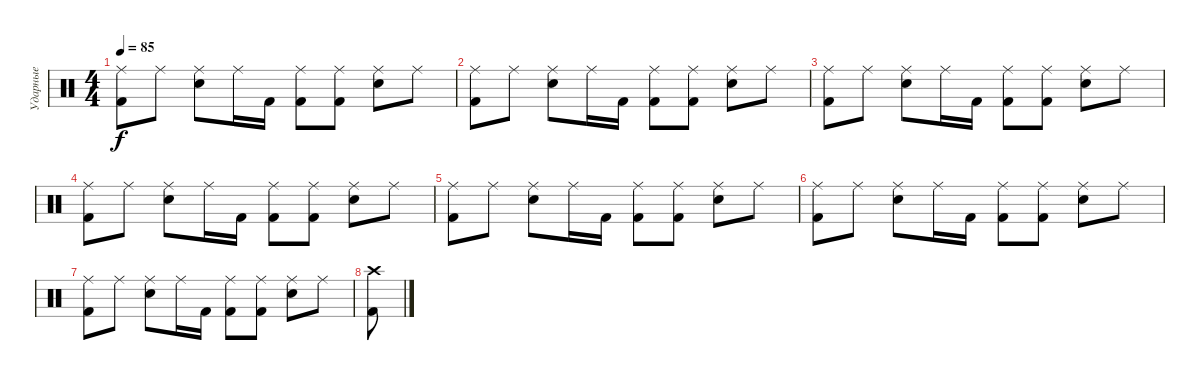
\track ("Ударные" "Ударные") {instrument percussion}
\staff {score}
\articulation defaults
\ts (4 4)
\tempo 85
\clef neutral
\ks c
("Ride (middle)" "Kick (hit) 2").8{dy f} "Ride (middle)".8 ("Ride (middle)" "Snare (hit) 2").8 "Ride (middle)".16 "Kick (hit) 2".16 ("Ride (middle)" "Kick (hit) 2").8 ("Ride (middle)" "Kick (hit) 2").8 ("Ride (middle)" "Snare (hit) 2").8 "Ride (middle)".8 |
("Ride (middle)" "Kick (hit) 2").8 "Ride (middle)".8 ("Ride (middle)" "Snare (hit) 2").8 "Ride (middle)".16 "Kick (hit) 2".16 ("Ride (middle)" "Kick (hit) 2").8 ("Ride (middle)" "Kick (hit) 2").8 ("Ride (middle)" "Snare (hit) 2").8 "Ride (middle)".8 |
("Ride (middle)" "Kick (hit) 2").8 "Ride (middle)".8 ("Ride (middle)" "Snare (hit) 2").8 "Ride (middle)".16 "Kick (hit) 2".16 ("Ride (middle)" "Kick (hit) 2").8 ("Ride (middle)" "Kick (hit) 2").8 ("Ride (middle)" "Snare (hit) 2").8 "Ride (middle)".8 |
("Ride (middle)" "Kick (hit) 2").8 "Ride (middle)".8 ("Ride (middle)" "Snare (hit) 2").8 "Ride (middle)".16 "Kick (hit) 2".16 ("Ride (middle)" "Kick (hit) 2").8 ("Ride (middle)" "Kick (hit) 2").8 ("Ride (middle)" "Snare (hit) 2").8 "Ride (middle)".8 |
("Ride (middle)" "Kick (hit) 2").8 "Ride (middle)".8 ("Ride (middle)" "Snare (hit) 2").8 "Ride (middle)".16 "Kick (hit) 2".16 ("Ride (middle)" "Kick (hit) 2").8 ("Ride (middle)" "Kick (hit) 2").8 ("Ride (middle)" "Snare (hit) 2").8 "Ride (middle)".8 |
("Ride (middle)" "Kick (hit) 2").8 "Ride (middle)".8 ("Ride (middle)" "Snare (hit) 2").8 "Ride (middle)".16 "Kick (hit) 2".16 ("Ride (middle)" "Kick (hit) 2").8 ("Ride (middle)" "Kick (hit) 2").8 ("Ride (middle)" "Snare (hit) 2").8 "Ride (middle)".8 |
("Ride (middle)" "Kick (hit) 2").8 "Ride (middle)".8 ("Ride (middle)" "Snare (hit) 2").8 "Ride (middle)".16 "Kick (hit) 2".16 ("Ride (middle)" "Kick (hit) 2").8 ("Ride (middle)" "Kick (hit) 2").8 ("Ride (middle)" "Snare (hit) 2").8 "Ride (middle)".8 |
("Crash high (hit)" "Kick (hit) 2").8
